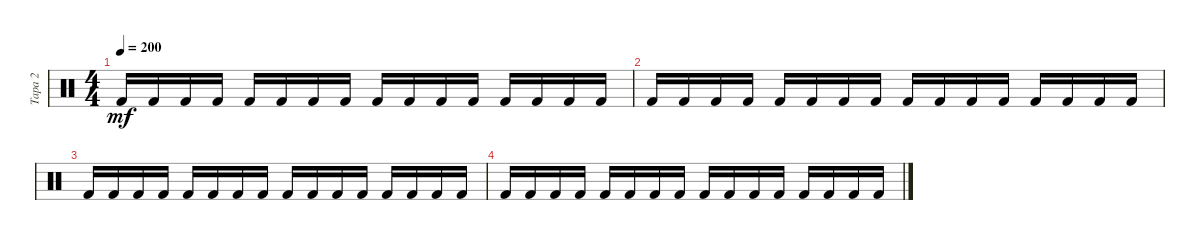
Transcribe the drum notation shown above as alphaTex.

\track ("Tapa 2" "Tapa 2") {instrument percussion}
\staff {score}
\articulation defaults
\ts (4 4)
\tempo 200
\clef neutral
\ks c "Kick (hit) 2".16{dy mf} "Kick (hit) 2".16 "Kick (hit) 2".16 "Kick (hit) 2".16 "Kick (hit) 2".16 "Kick (hit) 2".16 "Kick (hit) 2".16 "Kick (hit) 2".16 "Kick (hit) 2".16 "Kick (hit) 2".16 "Kick (hit) 2".16 "Kick (hit) 2".16 "Kick (hit) 2".16 "Kick (hit) 2".16 "Kick (hit) 2".16 "Kick (hit) 2".16
|
"Kick (hit) 2".16 "Kick (hit) 2".16 "Kick (hit) 2".16 "Kick (hit) 2".16 "Kick (hit) 2".16 "Kick (hit) 2".16 "Kick (hit) 2".16 "Kick (hit) 2".16 "Kick (hit) 2".16 "Kick (hit) 2".16 "Kick (hit) 2".16 "Kick (hit) 2".16 "Kick (hit) 2".16 "Kick (hit) 2".16 "Kick (hit) 2".16 "Kick (hit) 2".16 |
"Kick (hit) 2".16 "Kick (hit) 2".16 "Kick (hit) 2".16 "Kick (hit) 2".16 "Kick (hit) 2".16 "Kick (hit) 2".16 "Kick (hit) 2".16 "Kick (hit) 2".16 "Kick (hit) 2".16 "Kick (hit) 2".16 "Kick (hit) 2".16 "Kick (hit) 2".16 "Kick (hit) 2".16 "Kick (hit) 2".16 "Kick (hit) 2".16 "Kick (hit) 2".16 |
"Kick (hit) 2".16 "Kick (hit) 2".16 "Kick (hit) 2".16 "Kick (hit) 2".16 "Kick (hit) 2".16 "Kick (hit) 2".16 "Kick (hit) 2".16 "Kick (hit) 2".16 "Kick (hit) 2".16 "Kick (hit) 2".16 "Kick (hit) 2".16 "Kick (hit) 2".16 "Kick (hit) 2".16 "Kick (hit) 2".16 "Kick (hit) 2".16 "Kick (hit) 2".16
